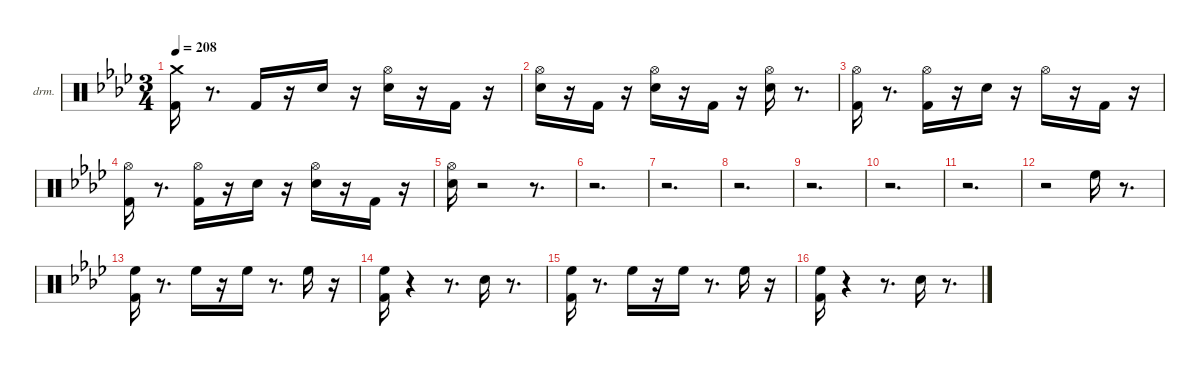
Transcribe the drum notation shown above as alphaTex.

\hideDynamics
\bracketExtendMode nobrackets
\firstSystemTrackNameOrientation horizontal
\otherSystemsTrackNameOrientation horizontal
\track ("EZdrummer 3" "drm.") {instrument percussion}
\staff {score}
\articulation defaults
\ts (3 4)
\tempo 208
\clef neutral
\ks fminor
("Kick (hit) 2"{acc forcenatural} "Crash medium (hit)"{acc forcenatural}).16{dy ff beam Down} r.8{d beam Down} "Kick (hit) 2"{acc forcenatural}.16{dy f beam Up} r.16{beam Up} "Snare (hit) 2"{acc forcenatural}.16{dy mp beam Down} r.16{beam Down} ("Snare (hit) 2"{acc forcenatural} "Hi-Hat (open)"{acc b}).16{dy ff beam Down} r.16{beam Down} "Kick (hit) 2"{acc forcenatural}.16{beam Up} r.16{beam Up} |
("Snare (hit) 2"{acc forcenatural} "Hi-Hat (open)"{acc b}).16{beam Down} r.16{beam Down} "Kick (hit) 2"{acc forcenatural}.16{beam Up} r.16{beam Up} ("Snare (hit) 2"{acc forcenatural} "Hi-Hat (open)"{acc b}).16{beam Down} r.16{beam Down} "Kick (hit) 2"{acc forcenatural}.16{beam Up} r.16{beam Up} ("Snare (hit) 2"{acc forcenatural} "Hi-Hat (open)"{acc b}).16{beam Down} r.8{d beam Down} |
("Kick (hit) 2"{acc forcenatural} "Hi-Hat (open)"{acc b}).16{beam Down} r.8{d beam Down} ("Kick (hit) 2"{acc forcenatural} "Hi-Hat (open)"{acc b}).16{dy f beam Down} r.16{beam Down} "Snare (hit) 2"{acc forcenatural}.16{dy ff beam Down} r.16{beam Down} "Hi-Hat (open)"{acc b}.16{dy f beam Down} r.16{beam Down} "Kick (hit) 2"{acc forcenatural}.16{beam Up} r.16{beam Up} |
("Kick (hit) 2"{acc forcenatural} "Hi-Hat (open)"{acc b}).16{dy ff beam Down} r.8{d beam Down} ("Kick (hit) 2"{acc forcenatural} "Hi-Hat (open)"{acc b}).16{beam Down} r.16{beam Down} "Snare (hit) 2"{acc forcenatural}.16{dy ppp beam Down} r.16{beam Down} ("Snare (hit) 2"{acc forcenatural} "Hi-Hat (open)"{acc b}).16{dy f beam Down} r.16{beam Down} "Kick (hit) 2"{acc forcenatural}.16{dy mf beam Up} r.16{beam Up} |
("Snare (hit) 2"{acc forcenatural} "Hi-Hat (open)"{acc b}).16{dy ff beam Down} r.2{beam Down} r.8{d beam Down} |
r.2{d beam Down} |
r.2{d beam Down} |
r.2{d beam Down} |
r.2{d beam Down} |
r.2{d beam Down} |
r.2{d beam Down} |
r.2{beam Down} "High Floor Tom (hit)"{acc forcenatural}.16{dy mp beam Down} r.8{d beam Down} |
("Kick (hit) 2"{acc forcenatural} "High Floor Tom (hit)"{acc forcenatural}).16{dy fff beam Down} r.8{d beam Down} "High Floor Tom (hit)"{acc forcenatural}.16{dy pp beam Down} r.16{beam Down} "High Floor Tom (hit)"{acc forcenatural}.16{dy f beam Down} r.8{d beam Down} "High Floor Tom (hit)"{acc forcenatural}.16{dy p beam Down} r.16{beam Down} |
("Kick (hit) 2"{acc forcenatural} "High Floor Tom (hit)"{acc forcenatural}).16{dy fff beam Down} r.4{beam Down} r.8{d beam Down} "Snare (hit) 2"{acc forcenatural}.16{dy ff beam Down} r.8{d beam Down} |
("Kick (hit) 2"{acc forcenatural} "High Floor Tom (hit)"{acc forcenatural}).16{dy fff beam Down} r.8{d beam Down} "High Floor Tom (hit)"{acc forcenatural}.16{dy pp beam Down} r.16{beam Down} "High Floor Tom (hit)"{acc forcenatural}.16{dy f beam Down} r.8{d beam Down} "High Floor Tom (hit)"{acc forcenatural}.16{dy p beam Down} r.16{beam Down} |
("Kick (hit) 2"{acc forcenatural} "High Floor Tom (hit)"{acc forcenatural}).16{dy fff beam Down} r.4{beam Down} r.8{d beam Down} "Snare (hit) 2"{acc forcenatural}.16{dy ff beam Down} r.8{d beam Down}
